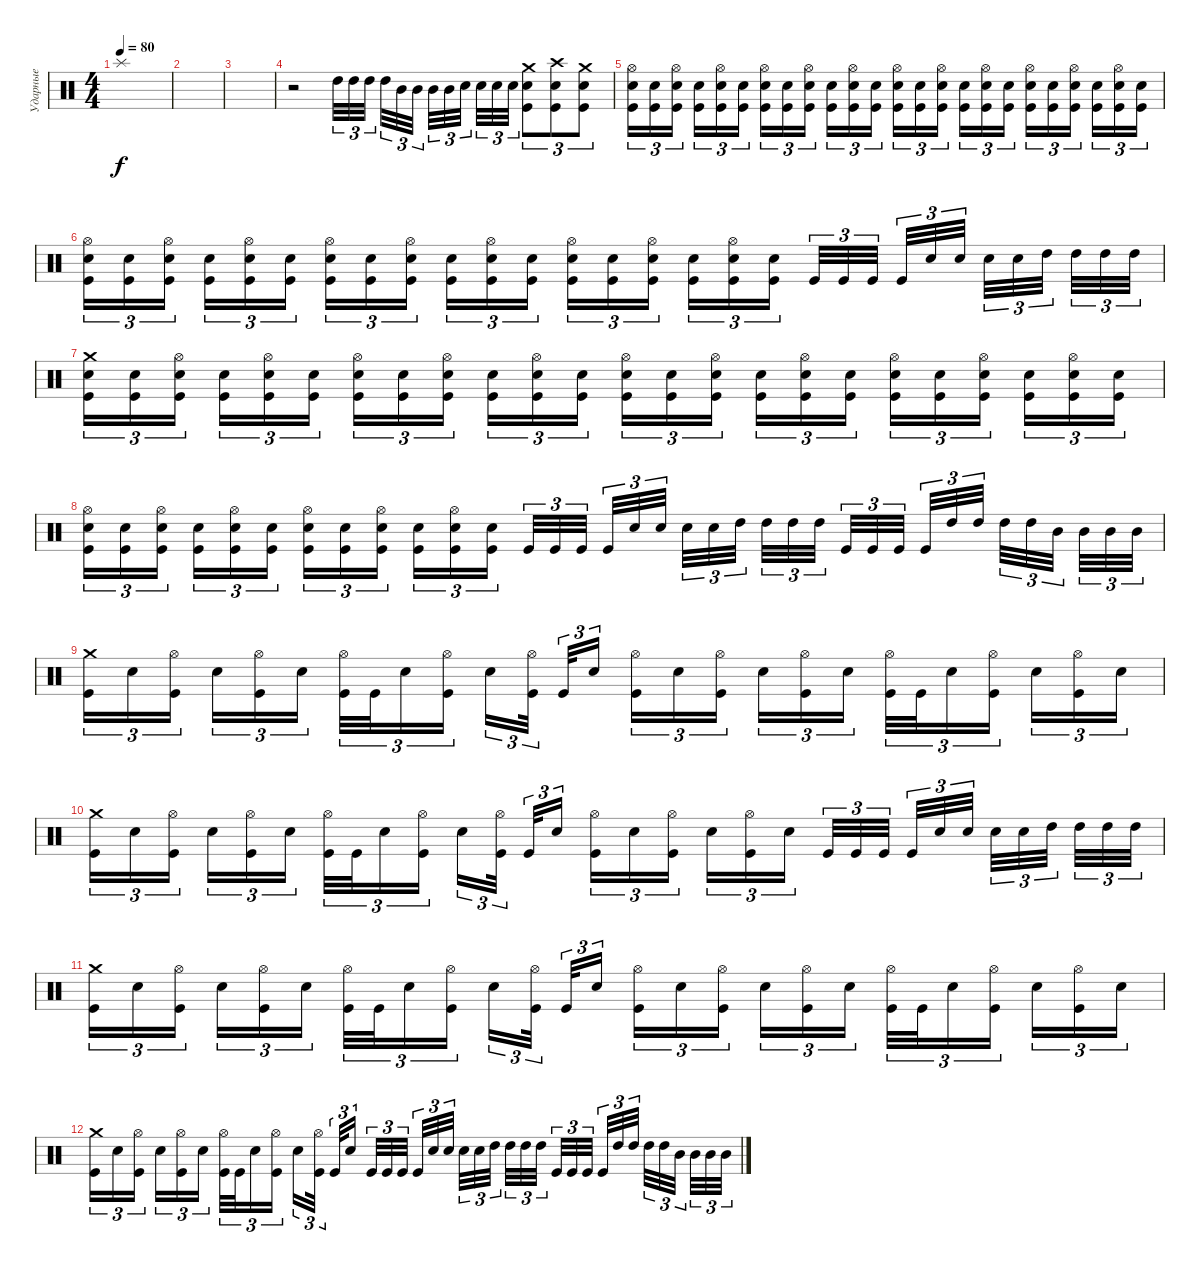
\track ("Ударные" "Ударные") {instrument percussion}
\staff {score}
\articulation defaults
\ts (4 4)
\tempo 80
\clef neutral
\ks c "Splash (hit)".1{dy f}
|
|
|
r.2 "High Tom (hit)".32{tu (3 2)} "High Tom (hit)".32{tu (3 2)} "High Tom (hit)".32{tu (3 2) beam splitsecondary} "High Tom (hit)".32{tu (3 2)} "Mid Tom (hit)".32{tu (3 2)} "Mid Tom (hit)".32{tu (3 2) beam splitsecondary} "Mid Tom (hit)".32{tu (3 2)} "Mid Tom (hit)".32{tu (3 2)} "Snare (hit) 2".32{tu (3 2) beam splitsecondary} "Snare (hit) 2".32{tu (3 2)} "Snare (hit) 2".32{tu (3 2)} "Snare (hit) 2".32{tu (3 2)} ("Crash medium (hit)" "Snare (hit) 2" "Kick (hit)").8{tu (3 2)} ("Crash high (hit)" "Snare (hit) 2" "Kick (hit)").8{tu (3 2)} ("Crash medium (hit)" "Snare (hit) 2" "Kick (hit)").8{tu (3 2)} |
("Hi-Hat (open)" "Snare (hit) 2" "Kick (hit)").16{tu (3 2)} ("Snare (hit) 2" "Kick (hit)").16{tu (3 2)} ("Hi-Hat (open)" "Snare (hit) 2" "Kick (hit)").16{tu (3 2) beam splitsecondary} ("Snare (hit) 2" "Kick (hit)").16{tu (3 2)} ("Hi-Hat (open)" "Snare (hit) 2" "Kick (hit)").16{tu (3 2)} ("Snare (hit) 2" "Kick (hit)").16{tu (3 2)} ("Hi-Hat (open)" "Snare (hit) 2" "Kick (hit)").16{tu (3 2)} ("Snare (hit) 2" "Kick (hit)").16{tu (3 2)} ("Hi-Hat (open)" "Snare (hit) 2" "Kick (hit)").16{tu (3 2) beam splitsecondary} ("Snare (hit) 2" "Kick (hit)").16{tu (3 2)} ("Hi-Hat (open)" "Snare (hit) 2" "Kick (hit)").16{tu (3 2)} ("Snare (hit) 2" "Kick (hit)").16{tu (3 2)} ("Hi-Hat (open)" "Snare (hit) 2" "Kick (hit)").16{tu (3 2)} ("Snare (hit) 2" "Kick (hit)").16{tu (3 2)} ("Hi-Hat (open)" "Snare (hit) 2" "Kick (hit)").16{tu (3 2) beam splitsecondary} ("Snare (hit) 2" "Kick (hit)").16{tu (3 2)} ("Hi-Hat (open)" "Snare (hit) 2" "Kick (hit)").16{tu (3 2)} ("Snare (hit) 2" "Kick (hit)").16{tu (3 2)} ("Hi-Hat (open)" "Snare (hit) 2" "Kick (hit)").16{tu (3 2)} ("Snare (hit) 2" "Kick (hit)").16{tu (3 2)} ("Hi-Hat (open)" "Snare (hit) 2" "Kick (hit)").16{tu (3 2) beam splitsecondary} ("Snare (hit) 2" "Kick (hit)").16{tu (3 2)} ("Hi-Hat (open)" "Snare (hit) 2" "Kick (hit)").16{tu (3 2)} ("Snare (hit) 2" "Kick (hit)").16{tu (3 2)} |
("Hi-Hat (open)" "Snare (hit) 2" "Kick (hit)").16{tu (3 2)} ("Snare (hit) 2" "Kick (hit)").16{tu (3 2)} ("Hi-Hat (open)" "Snare (hit) 2" "Kick (hit)").16{tu (3 2) beam splitsecondary} ("Snare (hit) 2" "Kick (hit)").16{tu (3 2)} ("Hi-Hat (open)" "Snare (hit) 2" "Kick (hit)").16{tu (3 2)} ("Snare (hit) 2" "Kick (hit)").16{tu (3 2)} ("Hi-Hat (open)" "Snare (hit) 2" "Kick (hit)").16{tu (3 2)} ("Snare (hit) 2" "Kick (hit)").16{tu (3 2)} ("Hi-Hat (open)" "Snare (hit) 2" "Kick (hit)").16{tu (3 2) beam splitsecondary} ("Snare (hit) 2" "Kick (hit)").16{tu (3 2)} ("Hi-Hat (open)" "Snare (hit) 2" "Kick (hit)").16{tu (3 2)} ("Snare (hit) 2" "Kick (hit)").16{tu (3 2)} ("Hi-Hat (open)" "Snare (hit) 2" "Kick (hit)").16{tu (3 2)} ("Snare (hit) 2" "Kick (hit)").16{tu (3 2)} ("Hi-Hat (open)" "Snare (hit) 2" "Kick (hit)").16{tu (3 2) beam splitsecondary} ("Snare (hit) 2" "Kick (hit)").16{tu (3 2)} ("Hi-Hat (open)" "Snare (hit) 2" "Kick (hit)").16{tu (3 2)} ("Snare (hit) 2" "Kick (hit)").16{tu (3 2)} "Kick (hit)".32{tu (3 2)} "Kick (hit)".32{tu (3 2)} "Kick (hit)".32{tu (3 2) beam splitsecondary} "Kick (hit)".32{tu (3 2)} "Snare (hit) 2".32{tu (3 2)} "Snare (hit) 2".32{tu (3 2) beam splitsecondary} "Snare (hit) 2".32{tu (3 2)} "Snare (hit) 2".32{tu (3 2)} "High Tom (hit)".32{tu (3 2) beam splitsecondary} "High Tom (hit)".32{tu (3 2)} "High Tom (hit)".32{tu (3 2)} "High Tom (hit)".32{tu (3 2)} |
("Crash medium (hit)" "Snare (hit) 2" "Kick (hit)").16{tu (3 2)} ("Snare (hit) 2" "Kick (hit)").16{tu (3 2)} ("Hi-Hat (open)" "Snare (hit) 2" "Kick (hit)").16{tu (3 2) beam splitsecondary} ("Snare (hit) 2" "Kick (hit)").16{tu (3 2)} ("Hi-Hat (open)" "Snare (hit) 2" "Kick (hit)").16{tu (3 2)} ("Snare (hit) 2" "Kick (hit)").16{tu (3 2)} ("Hi-Hat (open)" "Snare (hit) 2" "Kick (hit)").16{tu (3 2)} ("Snare (hit) 2" "Kick (hit)").16{tu (3 2)} ("Hi-Hat (open)" "Snare (hit) 2" "Kick (hit)").16{tu (3 2) beam splitsecondary} ("Snare (hit) 2" "Kick (hit)").16{tu (3 2)} ("Hi-Hat (open)" "Snare (hit) 2" "Kick (hit)").16{tu (3 2)} ("Snare (hit) 2" "Kick (hit)").16{tu (3 2)} ("Hi-Hat (open)" "Snare (hit) 2" "Kick (hit)").16{tu (3 2)} ("Snare (hit) 2" "Kick (hit)").16{tu (3 2)} ("Hi-Hat (open)" "Snare (hit) 2" "Kick (hit)").16{tu (3 2) beam splitsecondary} ("Snare (hit) 2" "Kick (hit)").16{tu (3 2)} ("Hi-Hat (open)" "Snare (hit) 2" "Kick (hit)").16{tu (3 2)} ("Snare (hit) 2" "Kick (hit)").16{tu (3 2)} ("Hi-Hat (open)" "Snare (hit) 2" "Kick (hit)").16{tu (3 2)} ("Snare (hit) 2" "Kick (hit)").16{tu (3 2)} ("Hi-Hat (open)" "Snare (hit) 2" "Kick (hit)").16{tu (3 2) beam splitsecondary} ("Snare (hit) 2" "Kick (hit)").16{tu (3 2)} ("Hi-Hat (open)" "Snare (hit) 2" "Kick (hit)").16{tu (3 2)} ("Snare (hit) 2" "Kick (hit)").16{tu (3 2)} |
("Hi-Hat (open)" "Snare (hit) 2" "Kick (hit)").16{tu (3 2)} ("Snare (hit) 2" "Kick (hit)").16{tu (3 2)} ("Hi-Hat (open)" "Snare (hit) 2" "Kick (hit)").16{tu (3 2) beam splitsecondary} ("Snare (hit) 2" "Kick (hit)").16{tu (3 2)} ("Hi-Hat (open)" "Snare (hit) 2" "Kick (hit)").16{tu (3 2)} ("Snare (hit) 2" "Kick (hit)").16{tu (3 2)} ("Hi-Hat (open)" "Snare (hit) 2" "Kick (hit)").16{tu (3 2)} ("Snare (hit) 2" "Kick (hit)").16{tu (3 2)} ("Hi-Hat (open)" "Snare (hit) 2" "Kick (hit)").16{tu (3 2) beam splitsecondary} ("Snare (hit) 2" "Kick (hit)").16{tu (3 2)} ("Hi-Hat (open)" "Snare (hit) 2" "Kick (hit)").16{tu (3 2)} ("Snare (hit) 2" "Kick (hit)").16{tu (3 2)} "Kick (hit)".32{tu (3 2)} "Kick (hit)".32{tu (3 2)} "Kick (hit)".32{tu (3 2) beam splitsecondary} "Kick (hit)".32{tu (3 2)} "Snare (hit) 2".32{tu (3 2)} "Snare (hit) 2".32{tu (3 2) beam splitsecondary} "Snare (hit) 2".32{tu (3 2)} "Snare (hit) 2".32{tu (3 2)} "High Tom (hit)".32{tu (3 2) beam splitsecondary} "High Tom (hit)".32{tu (3 2)} "High Tom (hit)".32{tu (3 2)} "High Tom (hit)".32{tu (3 2)} "Kick (hit)".32{tu (3 2)} "Kick (hit)".32{tu (3 2)} "Kick (hit)".32{tu (3 2) beam splitsecondary} "Kick (hit)".32{tu (3 2)} "High Tom (hit)".32{tu (3 2)} "High Tom (hit)".32{tu (3 2) beam splitsecondary} "High Tom (hit)".32{tu (3 2)} "High Tom (hit)".32{tu (3 2)} "Mid Tom (hit)".32{tu (3 2) beam splitsecondary} "Mid Tom (hit)".32{tu (3 2)} "Mid Tom (hit)".32{tu (3 2)} "Mid Tom (hit)".32{tu (3 2)} |
("Crash medium (hit)" "Kick (hit)").16{tu (3 2)} "Snare (hit) 2".16{tu (3 2)} ("Hi-Hat (open)" "Kick (hit)").16{tu (3 2) beam splitsecondary} "Snare (hit) 2".16{tu (3 2)} ("Hi-Hat (open)" "Kick (hit)").16{tu (3 2)} "Snare (hit) 2".16{tu (3 2)} ("Hi-Hat (open)" "Kick (hit)").32{tu (3 2)} "Kick (hit)".32{tu (3 2)} "Snare (hit) 2".16{tu (3 2)} ("Hi-Hat (open)" "Kick (hit)").16{tu (3 2) beam splitsecondary} "Snare (hit) 2".16{tu (3 2)} ("Hi-Hat (open)" "Kick (hit)").32{tu (3 2) beam splitsecondary} "Kick (hit)".32{tu (3 2)} "Snare (hit) 2".16{tu (3 2)} ("Hi-Hat (open)" "Kick (hit)").16{tu (3 2)} "Snare (hit) 2".16{tu (3 2)} ("Hi-Hat (open)" "Kick (hit)").16{tu (3 2) beam splitsecondary} "Snare (hit) 2".16{tu (3 2)} ("Hi-Hat (open)" "Kick (hit)").16{tu (3 2)} "Snare (hit) 2".16{tu (3 2)} ("Hi-Hat (open)" "Kick (hit)").32{tu (3 2)} "Kick (hit)".32{tu (3 2)} "Snare (hit) 2".16{tu (3 2)} ("Hi-Hat (open)" "Kick (hit)").16{tu (3 2) beam splitsecondary} "Snare (hit) 2".16{tu (3 2)} ("Hi-Hat (open)" "Kick (hit)").16{tu (3 2)} "Snare (hit) 2".16{tu (3 2)} |
("Crash medium (hit)" "Kick (hit)").16{tu (3 2)} "Snare (hit) 2".16{tu (3 2)} ("Hi-Hat (open)" "Kick (hit)").16{tu (3 2) beam splitsecondary} "Snare (hit) 2".16{tu (3 2)} ("Hi-Hat (open)" "Kick (hit)").16{tu (3 2)} "Snare (hit) 2".16{tu (3 2)} ("Hi-Hat (open)" "Kick (hit)").32{tu (3 2)} "Kick (hit)".32{tu (3 2)} "Snare (hit) 2".16{tu (3 2)} ("Hi-Hat (open)" "Kick (hit)").16{tu (3 2) beam splitsecondary} "Snare (hit) 2".16{tu (3 2)} ("Hi-Hat (open)" "Kick (hit)").32{tu (3 2) beam splitsecondary} "Kick (hit)".32{tu (3 2)} "Snare (hit) 2".16{tu (3 2)} ("Hi-Hat (open)" "Kick (hit)").16{tu (3 2)} "Snare (hit) 2".16{tu (3 2)} ("Hi-Hat (open)" "Kick (hit)").16{tu (3 2) beam splitsecondary} "Snare (hit) 2".16{tu (3 2)} ("Hi-Hat (open)" "Kick (hit)").16{tu (3 2)} "Snare (hit) 2".16{tu (3 2)} "Kick (hit)".32{tu (3 2)} "Kick (hit)".32{tu (3 2)} "Kick (hit)".32{tu (3 2) beam splitsecondary} "Kick (hit)".32{tu (3 2)} "Snare (hit) 2".32{tu (3 2)} "Snare (hit) 2".32{tu (3 2) beam splitsecondary} "Snare (hit) 2".32{tu (3 2)} "Snare (hit) 2".32{tu (3 2)} "High Tom (hit)".32{tu (3 2) beam splitsecondary} "High Tom (hit)".32{tu (3 2)} "High Tom (hit)".32{tu (3 2)} "High Tom (hit)".32{tu (3 2)} |
("Crash medium (hit)" "Kick (hit)").16{tu (3 2)} "Snare (hit) 2".16{tu (3 2)} ("Hi-Hat (open)" "Kick (hit)").16{tu (3 2) beam splitsecondary} "Snare (hit) 2".16{tu (3 2)} ("Hi-Hat (open)" "Kick (hit)").16{tu (3 2)} "Snare (hit) 2".16{tu (3 2)} ("Hi-Hat (open)" "Kick (hit)").32{tu (3 2)} "Kick (hit)".32{tu (3 2)} "Snare (hit) 2".16{tu (3 2)} ("Hi-Hat (open)" "Kick (hit)").16{tu (3 2) beam splitsecondary} "Snare (hit) 2".16{tu (3 2)} ("Hi-Hat (open)" "Kick (hit)").32{tu (3 2) beam splitsecondary} "Kick (hit)".32{tu (3 2)} "Snare (hit) 2".16{tu (3 2)} ("Hi-Hat (open)" "Kick (hit)").16{tu (3 2)} "Snare (hit) 2".16{tu (3 2)} ("Hi-Hat (open)" "Kick (hit)").16{tu (3 2) beam splitsecondary} "Snare (hit) 2".16{tu (3 2)} ("Hi-Hat (open)" "Kick (hit)").16{tu (3 2)} "Snare (hit) 2".16{tu (3 2)} ("Hi-Hat (open)" "Kick (hit)").32{tu (3 2)} "Kick (hit)".32{tu (3 2)} "Snare (hit) 2".16{tu (3 2)} ("Hi-Hat (open)" "Kick (hit)").16{tu (3 2) beam splitsecondary} "Snare (hit) 2".16{tu (3 2)} ("Hi-Hat (open)" "Kick (hit)").16{tu (3 2)} "Snare (hit) 2".16{tu (3 2)} |
("Crash medium (hit)" "Kick (hit)").16{tu (3 2)} "Snare (hit) 2".16{tu (3 2)} ("Hi-Hat (open)" "Kick (hit)").16{tu (3 2) beam splitsecondary} "Snare (hit) 2".16{tu (3 2)} ("Hi-Hat (open)" "Kick (hit)").16{tu (3 2)} "Snare (hit) 2".16{tu (3 2)} ("Hi-Hat (open)" "Kick (hit)").32{tu (3 2)} "Kick (hit)".32{tu (3 2)} "Snare (hit) 2".16{tu (3 2)} ("Hi-Hat (open)" "Kick (hit)").16{tu (3 2) beam splitsecondary} "Snare (hit) 2".16{tu (3 2)} ("Hi-Hat (open)" "Kick (hit)").32{tu (3 2) beam splitsecondary} "Kick (hit)".32{tu (3 2)} "Snare (hit) 2".16{tu (3 2)} "Kick (hit)".32{tu (3 2)} "Kick (hit)".32{tu (3 2)} "Kick (hit)".32{tu (3 2) beam splitsecondary} "Kick (hit)".32{tu (3 2)} "Snare (hit) 2".32{tu (3 2)} "Snare (hit) 2".32{tu (3 2) beam splitsecondary} "Snare (hit) 2".32{tu (3 2)} "Snare (hit) 2".32{tu (3 2)} "High Tom (hit)".32{tu (3 2) beam splitsecondary} "High Tom (hit)".32{tu (3 2)} "High Tom (hit)".32{tu (3 2)} "High Tom (hit)".32{tu (3 2)} "Kick (hit)".32{tu (3 2)} "Kick (hit)".32{tu (3 2)} "Kick (hit)".32{tu (3 2) beam splitsecondary} "Kick (hit)".32{tu (3 2)} "High Tom (hit)".32{tu (3 2)} "High Tom (hit)".32{tu (3 2) beam splitsecondary} "High Tom (hit)".32{tu (3 2)} "High Tom (hit)".32{tu (3 2)} "Mid Tom (hit)".32{tu (3 2) beam splitsecondary} "Mid Tom (hit)".32{tu (3 2)} "Mid Tom (hit)".32{tu (3 2)} "Mid Tom (hit)".32{tu (3 2)}
